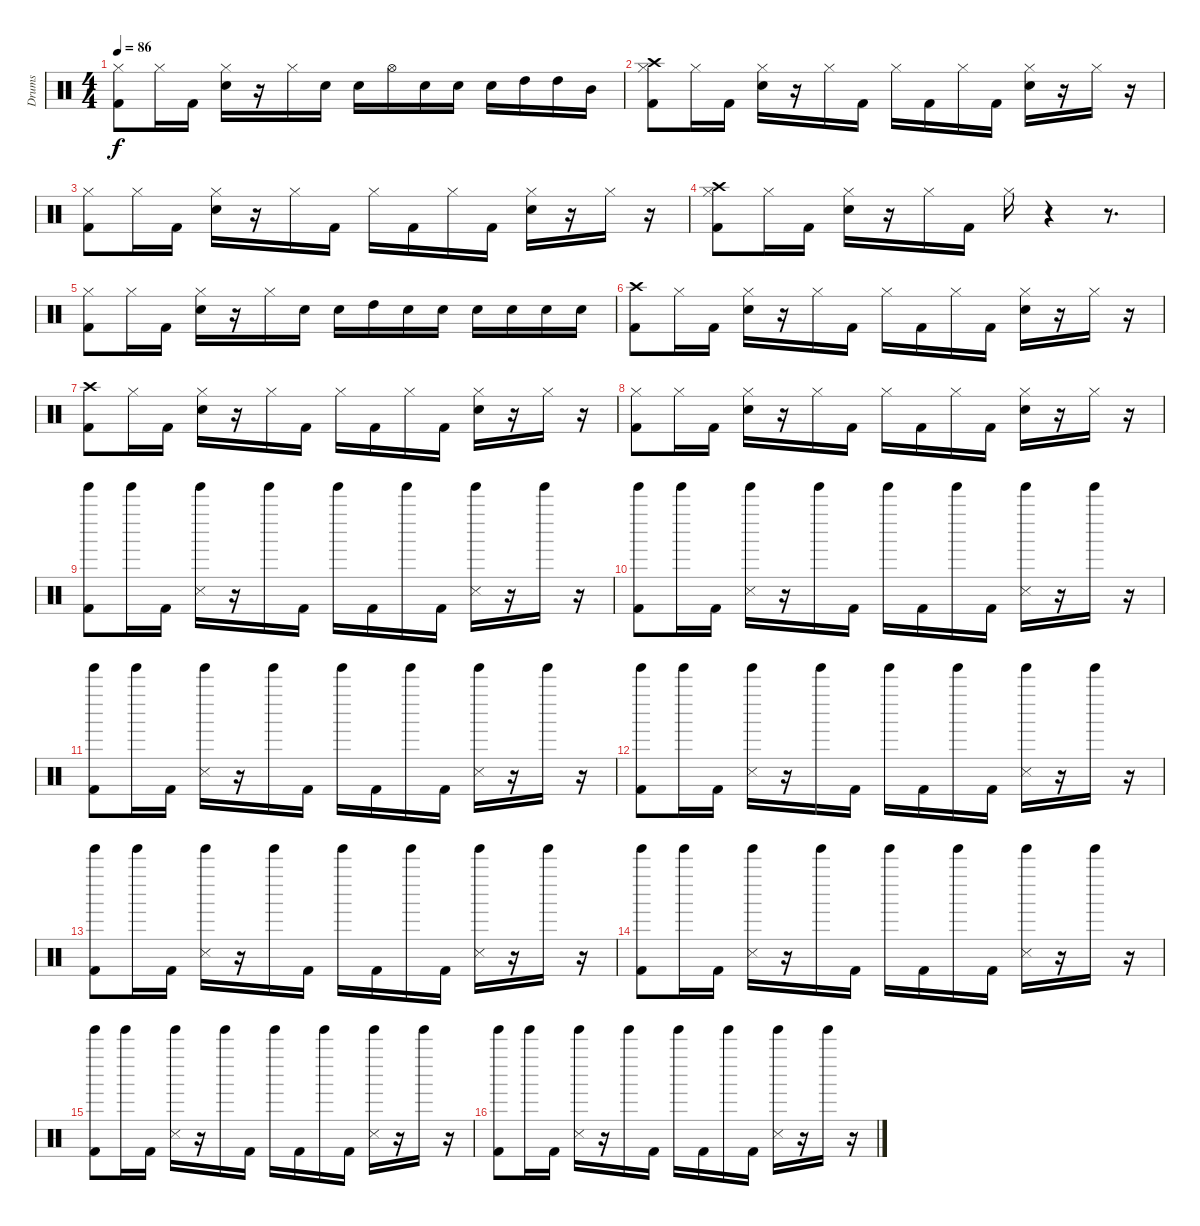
\track ("Drums" "Drums") {instrument percussion}
\staff {score}
\articulation defaults
\ts (4 4)
\tempo 86
\clef neutral
\ks c
("Kick (hit) 2" "Hi-Hat (closed)").8{dy f} "Hi-Hat (closed)".16 "Kick (hit) 2".16 ("Snare (hit) 2" "Hi-Hat (closed)").16 r.16 "Hi-Hat (closed)".16 "Snare (hit) 2".16 "Snare (hit) 2".16 "Hi-Hat (open)".16 "Snare (hit) 2".16 "Snare (hit) 2".16 "Snare (hit) 2".16 "High Tom (hit)".16 "High Tom (hit)".16 "Mid Tom (hit)".16 |
("Kick (hit) 2" "Hi-Hat (closed)" "Crash high (hit)").8 "Hi-Hat (closed)".16 "Kick (hit) 2".16 ("Snare (hit) 2" "Hi-Hat (closed)").16 r.16 "Hi-Hat (closed)".16 "Kick (hit) 2".16 "Hi-Hat (closed)".16 "Kick (hit) 2".16 "Hi-Hat (closed)".16 "Kick (hit) 2".16 ("Snare (hit) 2" "Hi-Hat (closed)").16 r.16 "Hi-Hat (closed)".16 r.16 |
("Kick (hit) 2" "Hi-Hat (closed)").8 "Hi-Hat (closed)".16 "Kick (hit) 2".16 ("Snare (hit) 2" "Hi-Hat (closed)").16 r.16 "Hi-Hat (closed)".16 "Kick (hit) 2".16 "Hi-Hat (closed)".16 "Kick (hit) 2".16 "Hi-Hat (closed)".16 "Kick (hit) 2".16 ("Snare (hit) 2" "Hi-Hat (closed)").16 r.16 "Hi-Hat (closed)".16 r.16 |
("Kick (hit) 2" "Hi-Hat (closed)" "Crash high (hit)").8 "Hi-Hat (closed)".16 "Kick (hit) 2".16 ("Snare (hit) 2" "Hi-Hat (closed)").16 r.16 "Hi-Hat (closed)".16 "Kick (hit) 2".16 "Hi-Hat (closed)".16 r.4 r.8{d} |
("Kick (hit) 2" "Hi-Hat (closed)").8 "Hi-Hat (closed)".16 "Kick (hit) 2".16 ("Snare (hit) 2" "Hi-Hat (closed)").16 r.16 "Hi-Hat (closed)".16 "Snare (hit) 2".16 "Snare (hit) 2".16 "High Tom (hit)".16 "Snare (hit) 2".16 "Snare (hit) 2".16 "Snare (hit) 2".16 "Snare (hit) 2".16 "Snare (hit) 2".16 "Snare (hit) 2".16 |
("Kick (hit) 2" "Crash high (hit)").8 "Hi-Hat (closed)".16 "Kick (hit) 2".16 ("Snare (hit) 2" "Hi-Hat (closed)").16 r.16 "Hi-Hat (closed)".16 "Kick (hit) 2".16 "Hi-Hat (closed)".16 "Kick (hit) 2".16 "Hi-Hat (closed)".16 "Kick (hit) 2".16 ("Snare (hit) 2" "Hi-Hat (closed)").16 r.16 "Hi-Hat (closed)".16 r.16 |
("Kick (hit) 2" "Crash high (hit)").8 "Hi-Hat (closed)".16 "Kick (hit) 2".16 ("Snare (hit) 2" "Hi-Hat (closed)").16 r.16 "Hi-Hat (closed)".16 "Kick (hit) 2".16 "Hi-Hat (closed)".16 "Kick (hit) 2".16 "Hi-Hat (closed)".16 "Kick (hit) 2".16 ("Snare (hit) 2" "Hi-Hat (closed)").16 r.16 "Hi-Hat (closed)".16 r.16 |
("Kick (hit) 2" "Hi-Hat (closed)").8 "Hi-Hat (closed)".16 "Kick (hit) 2".16 ("Snare (hit) 2" "Hi-Hat (closed)").16 r.16 "Hi-Hat (closed)".16 "Kick (hit) 2".16 "Hi-Hat (closed)".16 "Kick (hit) 2".16 "Hi-Hat (closed)".16 "Kick (hit) 2".16 ("Snare (hit) 2" "Hi-Hat (closed)").16 r.16 "Hi-Hat (closed)".16 r.16 |
("Kick (hit) 2" "Tinkle Bell (hit)").8 "Tinkle Bell (hit)".16 "Kick (hit) 2".16 ("Snare (side stick) 3" "Tinkle Bell (hit)").16 r.16 "Tinkle Bell (hit)".16 "Kick (hit) 2".16 "Tinkle Bell (hit)".16 "Kick (hit) 2".16 "Tinkle Bell (hit)".16 "Kick (hit) 2".16 ("Snare (side stick) 3" "Tinkle Bell (hit)").16 r.16 "Tinkle Bell (hit)".16 r.16 |
("Kick (hit) 2" "Tinkle Bell (hit)").8 "Tinkle Bell (hit)".16 "Kick (hit) 2".16 ("Snare (side stick) 3" "Tinkle Bell (hit)").16 r.16 "Tinkle Bell (hit)".16 "Kick (hit) 2".16 "Tinkle Bell (hit)".16 "Kick (hit) 2".16 "Tinkle Bell (hit)".16 "Kick (hit) 2".16 ("Snare (side stick) 3" "Tinkle Bell (hit)").16 r.16 "Tinkle Bell (hit)".16 r.16 |
("Kick (hit) 2" "Tinkle Bell (hit)").8 "Tinkle Bell (hit)".16 "Kick (hit) 2".16 ("Snare (side stick) 3" "Tinkle Bell (hit)").16 r.16 "Tinkle Bell (hit)".16 "Kick (hit) 2".16 "Tinkle Bell (hit)".16 "Kick (hit) 2".16 "Tinkle Bell (hit)".16 "Kick (hit) 2".16 ("Snare (side stick) 3" "Tinkle Bell (hit)").16 r.16 "Tinkle Bell (hit)".16 r.16 |
("Kick (hit) 2" "Tinkle Bell (hit)").8 "Tinkle Bell (hit)".16 "Kick (hit) 2".16 ("Snare (side stick) 3" "Tinkle Bell (hit)").16 r.16 "Tinkle Bell (hit)".16 "Kick (hit) 2".16 "Tinkle Bell (hit)".16 "Kick (hit) 2".16 "Tinkle Bell (hit)".16 "Kick (hit) 2".16 ("Snare (side stick) 3" "Tinkle Bell (hit)").16 r.16 "Tinkle Bell (hit)".16 r.16 |
("Kick (hit) 2" "Tinkle Bell (hit)").8 "Tinkle Bell (hit)".16 "Kick (hit) 2".16 ("Snare (side stick) 3" "Tinkle Bell (hit)").16 r.16 "Tinkle Bell (hit)".16 "Kick (hit) 2".16 "Tinkle Bell (hit)".16 "Kick (hit) 2".16 "Tinkle Bell (hit)".16 "Kick (hit) 2".16 ("Snare (side stick) 3" "Tinkle Bell (hit)").16 r.16 "Tinkle Bell (hit)".16 r.16 |
("Kick (hit) 2" "Tinkle Bell (hit)").8 "Tinkle Bell (hit)".16 "Kick (hit) 2".16 ("Snare (side stick) 3" "Tinkle Bell (hit)").16 r.16 "Tinkle Bell (hit)".16 "Kick (hit) 2".16 "Tinkle Bell (hit)".16 "Kick (hit) 2".16 "Tinkle Bell (hit)".16 "Kick (hit) 2".16 ("Snare (side stick) 3" "Tinkle Bell (hit)").16 r.16 "Tinkle Bell (hit)".16 r.16 |
("Kick (hit) 2" "Tinkle Bell (hit)").8 "Tinkle Bell (hit)".16 "Kick (hit) 2".16 ("Snare (side stick) 3" "Tinkle Bell (hit)").16 r.16 "Tinkle Bell (hit)".16 "Kick (hit) 2".16 "Tinkle Bell (hit)".16 "Kick (hit) 2".16 "Tinkle Bell (hit)".16 "Kick (hit) 2".16 ("Snare (side stick) 3" "Tinkle Bell (hit)").16 r.16 "Tinkle Bell (hit)".16 r.16 |
("Kick (hit) 2" "Tinkle Bell (hit)").8 "Tinkle Bell (hit)".16 "Kick (hit) 2".16 ("Snare (side stick) 3" "Tinkle Bell (hit)").16 r.16 "Tinkle Bell (hit)".16 "Kick (hit) 2".16 "Tinkle Bell (hit)".16 "Kick (hit) 2".16 "Tinkle Bell (hit)".16 "Kick (hit) 2".16 ("Snare (side stick) 3" "Tinkle Bell (hit)").16 r.16 "Tinkle Bell (hit)".16 r.16
